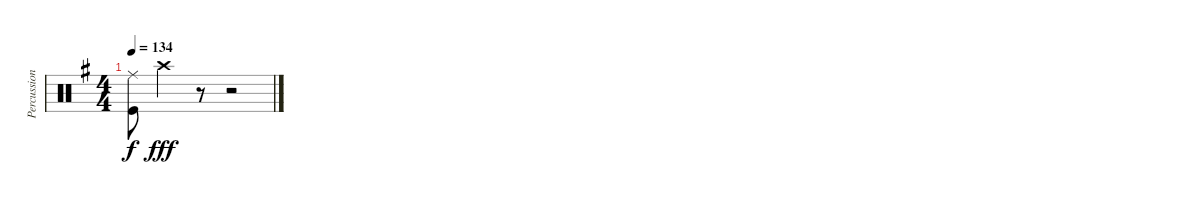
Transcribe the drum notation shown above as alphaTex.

\track ("Percussions" "Percussion") {instrument percussion}
\staff {score}
\articulation defaults
\ts (4 4)
\tempo 134
\clef neutral
\ks g
("Ride (middle)" "Kick (hit)").8{dy f} "Crash high (hit)".4{dy fff} r.8 r.2
